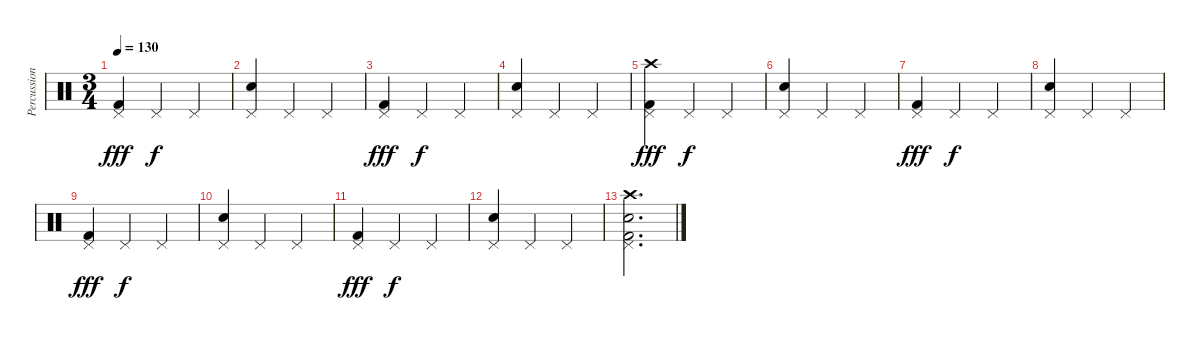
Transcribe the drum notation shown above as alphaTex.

\track ("Percussion" "Percussion") {instrument percussion}
\staff {score}
\articulation defaults
\ts (3 4)
\tempo 130
\clef neutral
\ks c
("Pedal Hi-Hat (hit)" "Kick (hit) 2").4{dy fff} "Pedal Hi-Hat (hit)".4{dy f} "Pedal Hi-Hat (hit)".4 |
("Pedal Hi-Hat (hit)" "Electric Snare (hit)").4 "Pedal Hi-Hat (hit)".4 "Pedal Hi-Hat (hit)".4 |
("Pedal Hi-Hat (hit)" "Kick (hit) 2").4{dy fff} "Pedal Hi-Hat (hit)".4{dy f} "Pedal Hi-Hat (hit)".4 |
("Pedal Hi-Hat (hit)" "Electric Snare (hit)").4 "Pedal Hi-Hat (hit)".4 "Pedal Hi-Hat (hit)".4 |
("Crash high (hit)" "Pedal Hi-Hat (hit)" "Kick (hit) 2").4{dy fff} "Pedal Hi-Hat (hit)".4{dy f} "Pedal Hi-Hat (hit)".4 |
("Pedal Hi-Hat (hit)" "Electric Snare (hit)").4 "Pedal Hi-Hat (hit)".4 "Pedal Hi-Hat (hit)".4 |
("Pedal Hi-Hat (hit)" "Kick (hit) 2").4{dy fff} "Pedal Hi-Hat (hit)".4{dy f} "Pedal Hi-Hat (hit)".4 |
("Pedal Hi-Hat (hit)" "Electric Snare (hit)").4 "Pedal Hi-Hat (hit)".4 "Pedal Hi-Hat (hit)".4 |
("Pedal Hi-Hat (hit)" "Kick (hit) 2").4{dy fff} "Pedal Hi-Hat (hit)".4{dy f} "Pedal Hi-Hat (hit)".4 |
("Pedal Hi-Hat (hit)" "Electric Snare (hit)").4 "Pedal Hi-Hat (hit)".4 "Pedal Hi-Hat (hit)".4 |
("Pedal Hi-Hat (hit)" "Kick (hit) 2").4{dy fff} "Pedal Hi-Hat (hit)".4{dy f} "Pedal Hi-Hat (hit)".4 |
("Pedal Hi-Hat (hit)" "Electric Snare (hit)").4 "Pedal Hi-Hat (hit)".4 "Pedal Hi-Hat (hit)".4 |
("Crash high (hit)" "Pedal Hi-Hat (hit)" "Electric Snare (hit)" "Kick (hit) 2").2{d}
